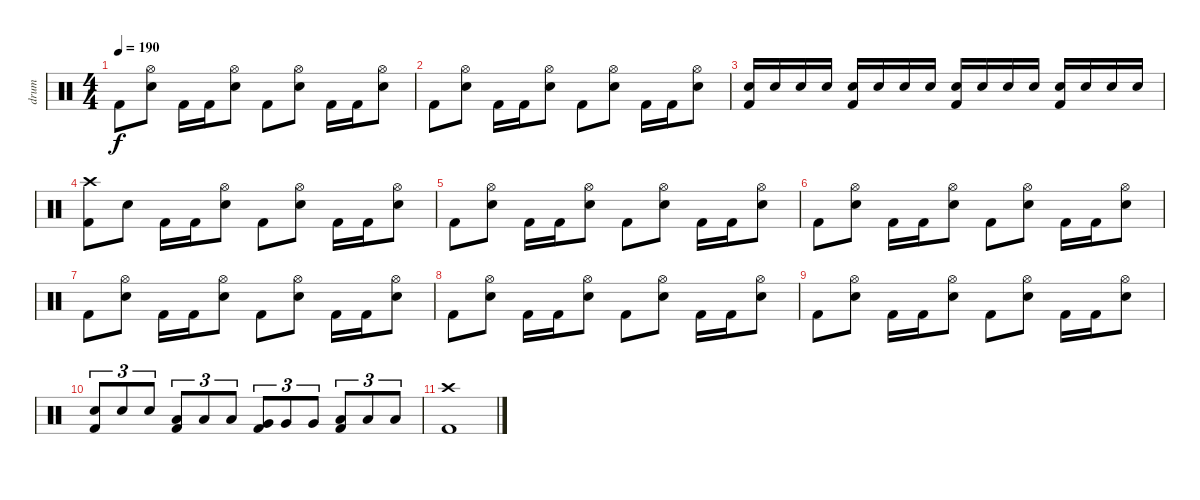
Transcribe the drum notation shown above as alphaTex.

\track ("drum" "drum") {instrument percussion}
\staff {score}
\articulation defaults
\ts (4 4)
\tempo 190
\clef neutral
\ks c "Kick (hit) 2".8{dy f}
("Hi-Hat (open)" "Electric Snare (hit)").8 "Kick (hit) 2".16 "Kick (hit) 2".16 ("Hi-Hat (open)" "Electric Snare (hit)").8 "Kick (hit) 2".8 ("Hi-Hat (open)" "Electric Snare (hit)").8 "Kick (hit) 2".16 "Kick (hit) 2".16 ("Hi-Hat (open)" "Electric Snare (hit)").8 |
"Kick (hit) 2".8 ("Hi-Hat (open)" "Electric Snare (hit)").8 "Kick (hit) 2".16 "Kick (hit) 2".16 ("Hi-Hat (open)" "Electric Snare (hit)").8 "Kick (hit) 2".8 ("Hi-Hat (open)" "Electric Snare (hit)").8 "Kick (hit) 2".16 "Kick (hit) 2".16 ("Hi-Hat (open)" "Electric Snare (hit)").8 |
("Electric Snare (hit)" "Kick (hit) 2").16 "Electric Snare (hit)".16 "Electric Snare (hit)".16 "Electric Snare (hit)".16 ("Electric Snare (hit)" "Kick (hit) 2").16 "Electric Snare (hit)".16 "Electric Snare (hit)".16 "Electric Snare (hit)".16 ("Electric Snare (hit)" "Kick (hit) 2").16 "Electric Snare (hit)".16 "Electric Snare (hit)".16 "Electric Snare (hit)".16 ("Electric Snare (hit)" "Kick (hit) 2").16 "Electric Snare (hit)".16 "Electric Snare (hit)".16 "Electric Snare (hit)".16 |
("Crash high (hit)" "Kick (hit) 2").8 "Electric Snare (hit)".8 "Kick (hit) 2".16 "Kick (hit) 2".16 ("Hi-Hat (open)" "Electric Snare (hit)").8 "Kick (hit) 2".8 ("Hi-Hat (open)" "Electric Snare (hit)").8 "Kick (hit) 2".16 "Kick (hit) 2".16 ("Hi-Hat (open)" "Electric Snare (hit)").8 |
"Kick (hit) 2".8 ("Hi-Hat (open)" "Electric Snare (hit)").8 "Kick (hit) 2".16 "Kick (hit) 2".16 ("Hi-Hat (open)" "Electric Snare (hit)").8 "Kick (hit) 2".8 ("Hi-Hat (open)" "Electric Snare (hit)").8 "Kick (hit) 2".16 "Kick (hit) 2".16 ("Hi-Hat (open)" "Electric Snare (hit)").8 |
"Kick (hit) 2".8 ("Hi-Hat (open)" "Electric Snare (hit)").8 "Kick (hit) 2".16 "Kick (hit) 2".16 ("Hi-Hat (open)" "Electric Snare (hit)").8 "Kick (hit) 2".8 ("Hi-Hat (open)" "Electric Snare (hit)").8 "Kick (hit) 2".16 "Kick (hit) 2".16 ("Hi-Hat (open)" "Electric Snare (hit)").8 |
"Kick (hit) 2".8 ("Hi-Hat (open)" "Electric Snare (hit)").8 "Kick (hit) 2".16 "Kick (hit) 2".16 ("Hi-Hat (open)" "Electric Snare (hit)").8 "Kick (hit) 2".8 ("Hi-Hat (open)" "Electric Snare (hit)").8 "Kick (hit) 2".16 "Kick (hit) 2".16 ("Hi-Hat (open)" "Electric Snare (hit)").8 |
"Kick (hit) 2".8 ("Hi-Hat (open)" "Electric Snare (hit)").8 "Kick (hit) 2".16 "Kick (hit) 2".16 ("Hi-Hat (open)" "Electric Snare (hit)").8 "Kick (hit) 2".8 ("Hi-Hat (open)" "Electric Snare (hit)").8 "Kick (hit) 2".16 "Kick (hit) 2".16 ("Hi-Hat (open)" "Electric Snare (hit)").8 |
"Kick (hit) 2".8 ("Hi-Hat (open)" "Electric Snare (hit)").8 "Kick (hit) 2".16 "Kick (hit) 2".16 ("Hi-Hat (open)" "Electric Snare (hit)").8 "Kick (hit) 2".8 ("Hi-Hat (open)" "Electric Snare (hit)").8 "Kick (hit) 2".16 "Kick (hit) 2".16 ("Hi-Hat (open)" "Electric Snare (hit)").8 |
("Electric Snare (hit)" "Kick (hit) 2").8{tu (3 2)} "Electric Snare (hit)".8{tu (3 2)} "Electric Snare (hit)".8{tu (3 2)} ("Low Tom (hit)" "Kick (hit) 2").8{tu (3 2)} "Low Tom (hit)".8{tu (3 2)} "Low Tom (hit)".8{tu (3 2)} ("Very Low Tom (hit)" "Kick (hit) 2").8{tu (3 2)} "Very Low Tom (hit)".8{tu (3 2)} "Very Low Tom (hit)".8{tu (3 2)} ("Low Floor Tom (hit)" "Kick (hit) 2").8{tu (3 2)} "Low Floor Tom (hit)".8{tu (3 2)} "Low Floor Tom (hit)".8{tu (3 2)} |
("Crash high (hit)" "Kick (hit) 2").1
